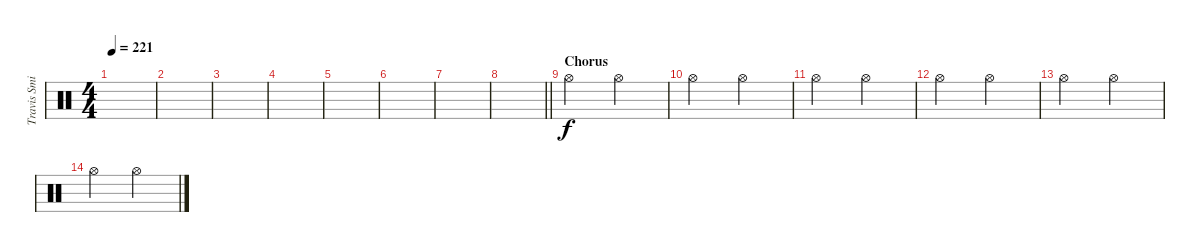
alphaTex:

\track ("Travis Smith" "Travis Smi") {instrument percussion}
\staff {score}
\articulation defaults
\ts (4 4)
\tempo 221
\clef neutral
\ks c
|
|
|
|
|
|
|
\barLineRight lightlight
|
\section ("" "Chorus")
"Hi-Hat (open)".2 "Hi-Hat (open)".2 |
"Hi-Hat (open)".2 "Hi-Hat (open)".2 |
"Hi-Hat (open)".2 "Hi-Hat (open)".2 |
"Hi-Hat (open)".2 "Hi-Hat (open)".2 |
"Hi-Hat (open)".2 "Hi-Hat (open)".2 |
"Hi-Hat (open)".2 "Hi-Hat (open)".2
